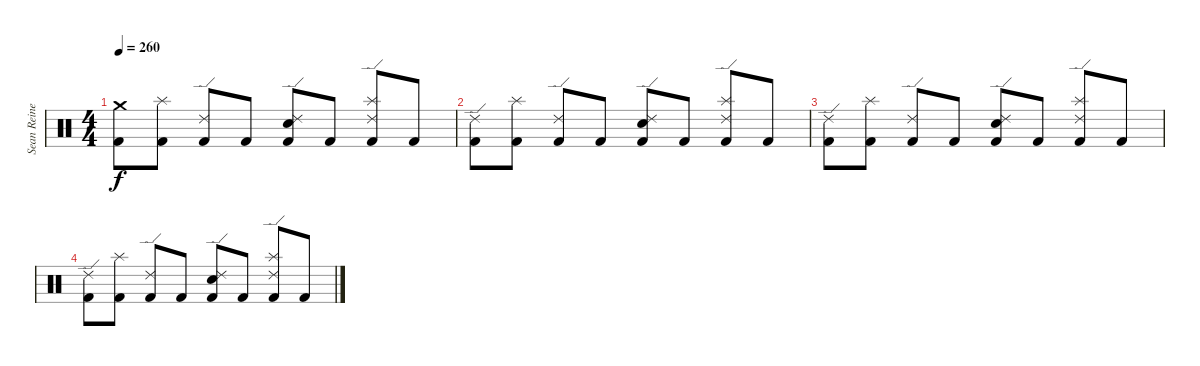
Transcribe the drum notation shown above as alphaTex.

\track ("Sean Reinert" "Sean Reine") {instrument percussion}
\staff {score}
\articulation defaults
\ts (4 4)
\tempo 260
\clef neutral
\ks c
("Crash medium (hit)" "Kick (hit) 2").8{dy f} ("Splash (hit)" "Kick (hit) 2").8 ("Ride (edge) 2" "Kick (hit) 2").8 "Kick (hit) 2".8 ("Ride (edge) 2" "Snare (hit) 2" "Kick (hit) 2").8 "Kick (hit) 2".8 ("Splash (hit)" "Ride (edge) 2" "Kick (hit) 2").8 "Kick (hit) 2".8 |
("Ride (edge) 2" "Kick (hit) 2").8 ("Splash (hit)" "Kick (hit) 2").8 ("Ride (edge) 2" "Kick (hit) 2").8 "Kick (hit) 2".8 ("Ride (edge) 2" "Snare (hit) 2" "Kick (hit) 2").8 "Kick (hit) 2".8 ("Splash (hit)" "Ride (edge) 2" "Kick (hit) 2").8 "Kick (hit) 2".8 |
("Ride (edge) 2" "Kick (hit) 2").8 ("Splash (hit)" "Kick (hit) 2").8 ("Ride (edge) 2" "Kick (hit) 2").8 "Kick (hit) 2".8 ("Ride (edge) 2" "Snare (hit) 2" "Kick (hit) 2").8 "Kick (hit) 2".8 ("Splash (hit)" "Ride (edge) 2" "Kick (hit) 2").8 "Kick (hit) 2".8 |
("Ride (edge) 2" "Kick (hit) 2").8 ("Splash (hit)" "Kick (hit) 2").8 ("Ride (edge) 2" "Kick (hit) 2").8 "Kick (hit) 2".8 ("Ride (edge) 2" "Snare (hit) 2" "Kick (hit) 2").8 "Kick (hit) 2".8 ("Splash (hit)" "Ride (edge) 2" "Kick (hit) 2").8 "Kick (hit) 2".8
